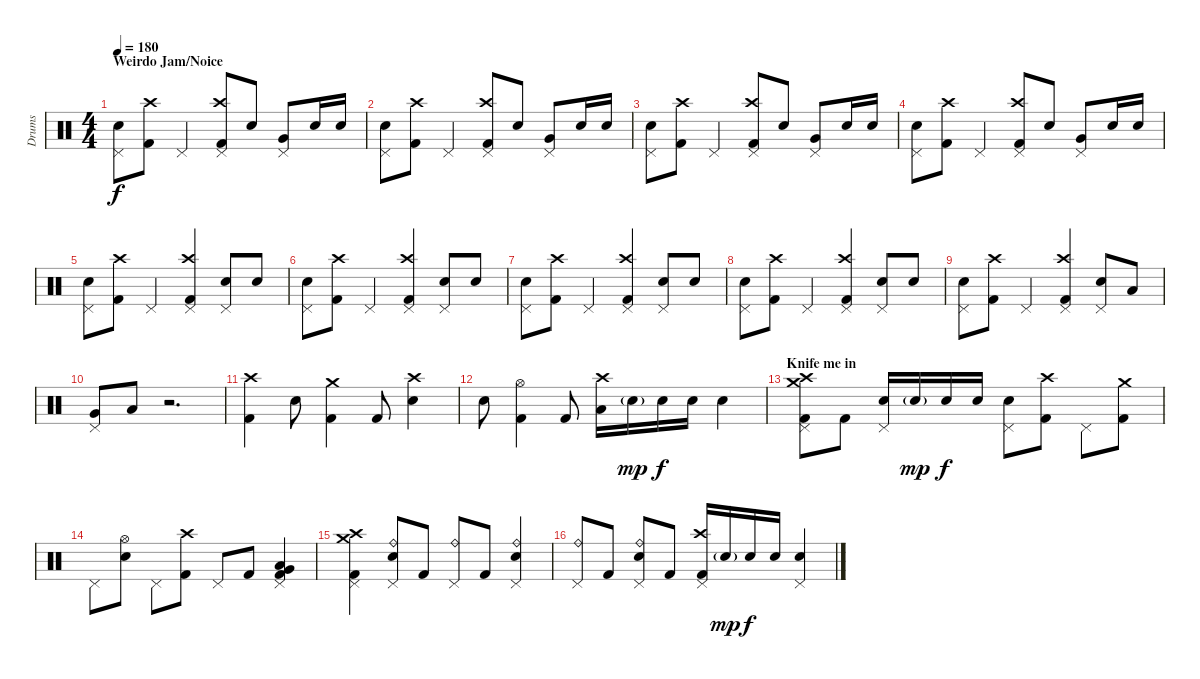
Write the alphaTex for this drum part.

\track ("Drums" "Drums") {instrument percussion}
\staff {score}
\articulation defaults
\ts (4 4)
\section ("" "Weirdo Jam/Noice")
\tempo 180
\clef neutral
\ks c
("Pedal Hi-Hat (hit)" "Snare (hit) 2").8{dy f} ("Crash high (hit)" "Kick (hit) 2").8 "Pedal Hi-Hat (hit)".4 ("Crash high (hit)" "Pedal Hi-Hat (hit)" "Kick (hit) 2").8 "Snare (hit) 2".8 ("Pedal Hi-Hat (hit)" "Very Low Tom (hit)").8 "Snare (hit) 2".16 "Snare (hit) 2".16 |
("Pedal Hi-Hat (hit)" "Snare (hit) 2").8 ("Crash high (hit)" "Kick (hit) 2").8 "Pedal Hi-Hat (hit)".4 ("Crash high (hit)" "Pedal Hi-Hat (hit)" "Kick (hit) 2").8 "Snare (hit) 2".8 ("Pedal Hi-Hat (hit)" "Very Low Tom (hit)").8 "Snare (hit) 2".16 "Snare (hit) 2".16 |
("Pedal Hi-Hat (hit)" "Snare (hit) 2").8 ("Crash high (hit)" "Kick (hit) 2").8 "Pedal Hi-Hat (hit)".4 ("Crash high (hit)" "Pedal Hi-Hat (hit)" "Kick (hit) 2").8 "Snare (hit) 2".8 ("Pedal Hi-Hat (hit)" "Very Low Tom (hit)").8 "Snare (hit) 2".16 "Snare (hit) 2".16 |
("Pedal Hi-Hat (hit)" "Snare (hit) 2").8 ("Crash high (hit)" "Kick (hit) 2").8 "Pedal Hi-Hat (hit)".4 ("Crash high (hit)" "Pedal Hi-Hat (hit)" "Kick (hit) 2").8 "Snare (hit) 2".8 ("Pedal Hi-Hat (hit)" "Very Low Tom (hit)").8 "Snare (hit) 2".16 "Snare (hit) 2".16 |
("Pedal Hi-Hat (hit)" "Snare (hit) 2").8 ("Crash high (hit)" "Kick (hit) 2").8 "Pedal Hi-Hat (hit)".4 ("Crash high (hit)" "Pedal Hi-Hat (hit)" "Kick (hit) 2").4 ("Pedal Hi-Hat (hit)" "Snare (hit) 2").8 "Snare (hit) 2".8 |
("Pedal Hi-Hat (hit)" "Snare (hit) 2").8 ("Crash high (hit)" "Kick (hit) 2").8 "Pedal Hi-Hat (hit)".4 ("Crash high (hit)" "Pedal Hi-Hat (hit)" "Kick (hit) 2").4 ("Pedal Hi-Hat (hit)" "Snare (hit) 2").8 "Snare (hit) 2".8 |
("Pedal Hi-Hat (hit)" "Snare (hit) 2").8 ("Crash high (hit)" "Kick (hit) 2").8 "Pedal Hi-Hat (hit)".4 ("Crash high (hit)" "Pedal Hi-Hat (hit)" "Kick (hit) 2").4 ("Pedal Hi-Hat (hit)" "Snare (hit) 2").8 "Snare (hit) 2".8 |
("Pedal Hi-Hat (hit)" "Snare (hit) 2").8 ("Crash high (hit)" "Kick (hit) 2").8 "Pedal Hi-Hat (hit)".4 ("Crash high (hit)" "Pedal Hi-Hat (hit)" "Kick (hit) 2").4 ("Pedal Hi-Hat (hit)" "Snare (hit) 2").8 "Snare (hit) 2".8 |
("Pedal Hi-Hat (hit)" "Snare (hit) 2").8 ("Crash high (hit)" "Kick (hit) 2").8 "Pedal Hi-Hat (hit)".4 ("Crash high (hit)" "Pedal Hi-Hat (hit)" "Kick (hit) 2").4 ("Pedal Hi-Hat (hit)" "Snare (hit) 2").8 "Low Tom (hit)".8 |
("Pedal Hi-Hat (hit)" "Very Low Tom (hit)").8 "Low Floor Tom (hit)".8 r.2{d} |
("Crash high (hit)" "Kick (hit) 2").4 "Snare (hit) 2".8 ("Crash medium (hit)" "Kick (hit) 2").4 "Kick (hit) 2".8 ("Crash high (hit)" "Snare (hit) 2").4 |
"Snare (hit) 2".8 ("Hi-Hat (open)" "Kick (hit) 2").4 "Kick (hit) 2".8 ("Crash high (hit)" "Low Floor Tom (hit)").16 "Snare (hit) 2"{g}.16{dy mp} "Snare (hit) 2".16{dy f} "Snare (hit) 2".16 "Snare (hit) 2".4 |
\section ("" "Knife me in")
("Crash high (hit)" "Pedal Hi-Hat (hit)" "Crash medium (hit)" "Kick (hit) 2").8 "Kick (hit) 2".8 ("Pedal Hi-Hat (hit)" "Snare (hit) 2").16 "Snare (hit) 2"{g}.16{dy mp} "Snare (hit) 2".16{dy f} "Snare (hit) 2".16 ("Pedal Hi-Hat (hit)" "Snare (hit) 2").8 ("Crash high (hit)" "Kick (hit) 2").8 "Pedal Hi-Hat (hit)".8 ("Crash medium (hit)" "Kick (hit) 2").8 |
"Pedal Hi-Hat (hit)".8 ("Hi-Hat (open)" "Snare (hit) 2").8 "Pedal Hi-Hat (hit)".8 ("Crash high (hit)" "Kick (hit) 2").8 "Pedal Hi-Hat (hit)".8 "Kick (hit) 2".8 ("Pedal Hi-Hat (hit)" "Very Low Tom (hit)" "Low Floor Tom (hit)" "Kick (hit) 2").4 |
("Crash high (hit)" "Pedal Hi-Hat (hit)" "Crash medium (hit)" "Kick (hit) 2").4 ("Ride (bell)" "Pedal Hi-Hat (hit)" "Snare (hit) 2").8 "Kick (hit) 2".8 ("Ride (bell)" "Pedal Hi-Hat (hit)").8 "Kick (hit) 2".8 ("Ride (bell)" "Pedal Hi-Hat (hit)" "Snare (hit) 2").4 |
("Ride (bell)" "Pedal Hi-Hat (hit)").8 "Kick (hit) 2".8 ("Ride (bell)" "Pedal Hi-Hat (hit)" "Snare (hit) 2").8 "Kick (hit) 2".8 ("Crash high (hit)" "Pedal Hi-Hat (hit)" "Kick (hit) 2").16 "Snare (hit) 2"{g}.16{dy mp} "Snare (hit) 2".16{dy f} "Snare (hit) 2".16 ("Pedal Hi-Hat (hit)" "Snare (hit) 2").4
